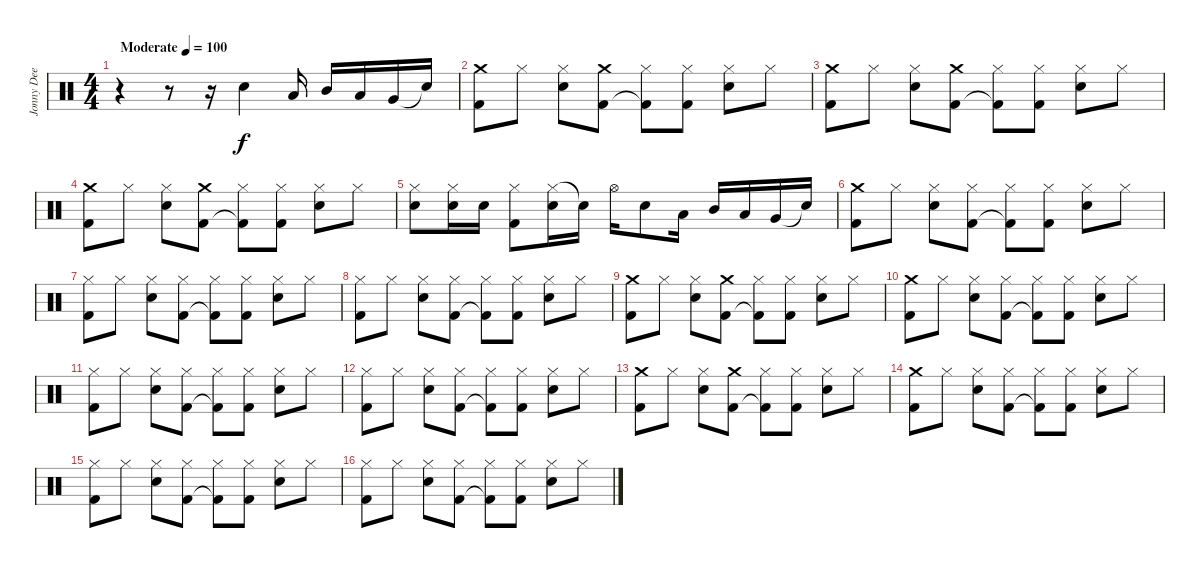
\track ("Jonny Dee" "Jonny Dee") {instrument percussion}
\staff {score}
\articulation defaults
\ts (4 4)
\tempo (100 "Moderate")
\clef neutral
\ks c
r.4{dy f} r.8 r.16 "Snare (hit) 2".4 "Low Tom (hit)".16 "Mid Tom (hit)".16 "Low Tom (hit)".16 "Very Low Tom (hit)".16 "Snare (hit)"{t}.16 |
("Crash medium (hit)" "Kick (hit) 2").8 "Hi-Hat (closed)".8 ("Hi-Hat (closed)" "Snare (hit) 2").8 ("Crash medium (hit)" "Kick (hit) 2").8 ("Hi-Hat (closed)" "Kick (hit) 2"{t}).8 ("Hi-Hat (closed)" "Kick (hit) 2").8 ("Hi-Hat (closed)" "Snare (hit) 2").8 "Hi-Hat (closed)".8 |
("Crash medium (hit)" "Kick (hit) 2").8 "Hi-Hat (closed)".8 ("Hi-Hat (closed)" "Snare (hit) 2").8 ("Crash medium (hit)" "Kick (hit) 2").8 ("Hi-Hat (closed)" "Kick (hit) 2"{t}).8 ("Hi-Hat (closed)" "Kick (hit) 2").8 ("Hi-Hat (closed)" "Snare (hit) 2").8 "Hi-Hat (closed)".8 |
("Crash medium (hit)" "Kick (hit) 2").8 "Hi-Hat (closed)".8 ("Hi-Hat (closed)" "Snare (hit) 2").8 ("Crash medium (hit)" "Kick (hit) 2").8 ("Hi-Hat (closed)" "Kick (hit) 2"{t}).8 ("Hi-Hat (closed)" "Kick (hit) 2").8 ("Hi-Hat (closed)" "Snare (hit) 2").8 "Hi-Hat (closed)".8 |
("Hi-Hat (closed)" "Snare (hit) 2").8 ("Hi-Hat (closed)" "Snare (hit) 2").16 "Snare (hit) 2".16 ("Hi-Hat (closed)" "Kick (hit) 2").8 ("Hi-Hat (closed)" "Snare (hit) 2").16 "Snare (hit)"{t}.16 "Hi-Hat (open)".16 "Snare (hit) 2".8 "Low Tom (hit)".16 "Mid Tom (hit)".16 "Low Tom (hit)".16 "Very Low Tom (hit)".16 "Snare (hit)"{t}.16 |
("Crash medium (hit)" "Kick (hit) 2").8 "Hi-Hat (closed)".8 ("Hi-Hat (closed)" "Snare (hit) 2").8 ("Hi-Hat (closed)" "Kick (hit) 2").8 ("Hi-Hat (closed)" "Kick (hit) 2"{t}).8 ("Hi-Hat (closed)" "Kick (hit) 2").8 ("Hi-Hat (closed)" "Snare (hit) 2").8 "Hi-Hat (closed)".8 |
("Hi-Hat (closed)" "Kick (hit) 2").8 "Hi-Hat (closed)".8 ("Hi-Hat (closed)" "Snare (hit) 2").8 ("Hi-Hat (closed)" "Kick (hit) 2").8 ("Hi-Hat (closed)" "Kick (hit) 2"{t}).8 ("Hi-Hat (closed)" "Kick (hit) 2").8 ("Hi-Hat (closed)" "Snare (hit) 2").8 "Hi-Hat (closed)".8 |
("Hi-Hat (closed)" "Kick (hit) 2").8 "Hi-Hat (closed)".8 ("Hi-Hat (closed)" "Snare (hit) 2").8 ("Hi-Hat (closed)" "Kick (hit) 2").8 ("Hi-Hat (closed)" "Kick (hit) 2"{t}).8 ("Hi-Hat (closed)" "Kick (hit) 2").8 ("Hi-Hat (closed)" "Snare (hit) 2").8 "Hi-Hat (closed)".8 |
("Crash medium (hit)" "Kick (hit) 2").8 "Hi-Hat (closed)".8 ("Hi-Hat (closed)" "Snare (hit) 2").8 ("Crash medium (hit)" "Kick (hit) 2").8 ("Hi-Hat (closed)" "Kick (hit) 2"{t}).8 ("Hi-Hat (closed)" "Kick (hit) 2").8 ("Hi-Hat (closed)" "Snare (hit) 2").8 "Hi-Hat (closed)".8 |
("Crash medium (hit)" "Kick (hit) 2").8 "Hi-Hat (closed)".8 ("Hi-Hat (closed)" "Snare (hit) 2").8 ("Hi-Hat (closed)" "Kick (hit) 2").8 ("Hi-Hat (closed)" "Kick (hit) 2"{t}).8 ("Hi-Hat (closed)" "Kick (hit) 2").8 ("Hi-Hat (closed)" "Snare (hit) 2").8 "Hi-Hat (closed)".8 |
("Hi-Hat (closed)" "Kick (hit) 2").8 "Hi-Hat (closed)".8 ("Hi-Hat (closed)" "Snare (hit) 2").8 ("Hi-Hat (closed)" "Kick (hit) 2").8 ("Hi-Hat (closed)" "Kick (hit) 2"{t}).8 ("Hi-Hat (closed)" "Kick (hit) 2").8 ("Hi-Hat (closed)" "Snare (hit) 2").8 "Hi-Hat (closed)".8 |
("Hi-Hat (closed)" "Kick (hit) 2").8 "Hi-Hat (closed)".8 ("Hi-Hat (closed)" "Snare (hit) 2").8 ("Hi-Hat (closed)" "Kick (hit) 2").8 ("Hi-Hat (closed)" "Kick (hit) 2"{t}).8 ("Hi-Hat (closed)" "Kick (hit) 2").8 ("Hi-Hat (closed)" "Snare (hit) 2").8 "Hi-Hat (closed)".8 |
("Crash medium (hit)" "Kick (hit) 2").8 "Hi-Hat (closed)".8 ("Hi-Hat (closed)" "Snare (hit) 2").8 ("Crash medium (hit)" "Kick (hit) 2").8 ("Hi-Hat (closed)" "Kick (hit) 2"{t}).8 ("Hi-Hat (closed)" "Kick (hit) 2").8 ("Hi-Hat (closed)" "Snare (hit) 2").8 "Hi-Hat (closed)".8 |
("Crash medium (hit)" "Kick (hit) 2").8 "Hi-Hat (closed)".8 ("Hi-Hat (closed)" "Snare (hit) 2").8 ("Hi-Hat (closed)" "Kick (hit) 2").8 ("Hi-Hat (closed)" "Kick (hit) 2"{t}).8 ("Hi-Hat (closed)" "Kick (hit) 2").8 ("Hi-Hat (closed)" "Snare (hit) 2").8 "Hi-Hat (closed)".8 |
("Hi-Hat (closed)" "Kick (hit) 2").8 "Hi-Hat (closed)".8 ("Hi-Hat (closed)" "Snare (hit) 2").8 ("Hi-Hat (closed)" "Kick (hit) 2").8 ("Hi-Hat (closed)" "Kick (hit) 2"{t}).8 ("Hi-Hat (closed)" "Kick (hit) 2").8 ("Hi-Hat (closed)" "Snare (hit) 2").8 "Hi-Hat (closed)".8 |
("Hi-Hat (closed)" "Kick (hit) 2").8 "Hi-Hat (closed)".8 ("Hi-Hat (closed)" "Snare (hit) 2").8 ("Hi-Hat (closed)" "Kick (hit) 2").8 ("Hi-Hat (closed)" "Kick (hit) 2"{t}).8 ("Hi-Hat (closed)" "Kick (hit) 2").8 ("Hi-Hat (closed)" "Snare (hit) 2").8 "Hi-Hat (closed)".8
